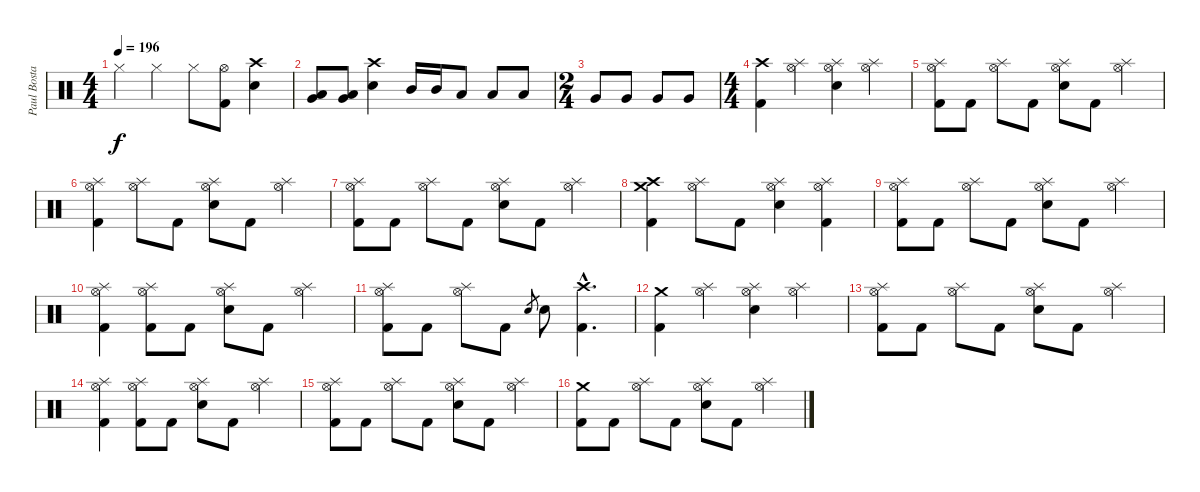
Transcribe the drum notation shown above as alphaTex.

\track ("Paul Bostaph" "Paul Bosta") {instrument percussion}
\staff {score}
\articulation defaults
\ts (4 4)
\tempo 196
\clef neutral
\ks c "Hi-Hat (closed)".4{dy f} "Hi-Hat (closed)".4 "Hi-Hat (closed)".8
("Hi-Hat (open)" "Kick (hit) 2").8 ("Crash high (hit)" "Electric Snare (hit)").4 |
("Very Low Tom (hit)" "Low Tom (hit)").8 ("Very Low Tom (hit)" "Low Tom (hit)").8 ("Crash high (hit)" "Electric Snare (hit)").4 "Mid Tom (hit)".16 "Mid Tom (hit)".16 "Low Tom (hit)".8 "Low Tom (hit)".8 "Low Tom (hit)".8 |
\ts (2 4)
"Very Low Tom (hit)".8 "Very Low Tom (hit)".8 "Very Low Tom (hit)".8 "Very Low Tom (hit)".8 |
\ts (4 4)
("Crash high (hit)" "Kick (hit) 2").4 ("Splash (hit)" "Hi-Hat (open)").4 ("Splash (hit)" "Electric Snare (hit)" "Hi-Hat (open)").4 ("Splash (hit)" "Hi-Hat (open)").4 |
("Splash (hit)" "Kick (hit) 2" "Hi-Hat (open)").8 "Kick (hit) 2".8 ("Splash (hit)" "Hi-Hat (open)").8 "Kick (hit) 2".8 ("Splash (hit)" "Electric Snare (hit)" "Hi-Hat (open)").8 "Kick (hit) 2".8 ("Splash (hit)" "Hi-Hat (open)").4 |
("Splash (hit)" "Kick (hit) 2" "Hi-Hat (open)").4 ("Splash (hit)" "Hi-Hat (open)").8 "Kick (hit) 2".8 ("Splash (hit)" "Electric Snare (hit)" "Hi-Hat (open)").8 "Kick (hit) 2".8 ("Splash (hit)" "Hi-Hat (open)").4 |
("Splash (hit)" "Kick (hit) 2" "Hi-Hat (open)").8 "Kick (hit) 2".8 ("Splash (hit)" "Hi-Hat (open)").8 "Kick (hit) 2".8 ("Splash (hit)" "Electric Snare (hit)" "Hi-Hat (open)").8 "Kick (hit) 2".8 ("Splash (hit)" "Hi-Hat (open)").4 |
("Crash high (hit)" "Kick (hit) 2" "Crash medium (hit)").4 ("Splash (hit)" "Hi-Hat (open)").8 "Kick (hit) 2".8 ("Splash (hit)" "Electric Snare (hit)" "Hi-Hat (open)").4 ("Splash (hit)" "Kick (hit) 2" "Hi-Hat (open)").4 |
("Splash (hit)" "Kick (hit) 2" "Hi-Hat (open)").8 "Kick (hit) 2".8 ("Splash (hit)" "Hi-Hat (open)").8 "Kick (hit) 2".8 ("Splash (hit)" "Electric Snare (hit)" "Hi-Hat (open)").8 "Kick (hit) 2".8 ("Splash (hit)" "Hi-Hat (open)").4 |
("Splash (hit)" "Kick (hit) 2" "Hi-Hat (open)").4 ("Splash (hit)" "Kick (hit) 2" "Hi-Hat (open)").8 "Kick (hit) 2".8 ("Splash (hit)" "Electric Snare (hit)" "Hi-Hat (open)").8 "Kick (hit) 2".8 ("Splash (hit)" "Hi-Hat (open)").4 |
("Splash (hit)" "Kick (hit) 2" "Hi-Hat (open)").8 "Kick (hit) 2".8 ("Splash (hit)" "Hi-Hat (open)").8 "Kick (hit) 2".8 "Electric Snare (hit)".8{gr} "Electric Snare (hit)".8 ("Crash high (hit)"{hac} "Kick (hit) 2"{hac}).4{d} |
("Crash medium (hit)" "Kick (hit) 2").4 ("Splash (hit)" "Hi-Hat (open)").4 ("Splash (hit)" "Electric Snare (hit)" "Hi-Hat (open)").4 ("Splash (hit)" "Hi-Hat (open)").4 |
("Splash (hit)" "Kick (hit) 2" "Hi-Hat (open)").8 "Kick (hit) 2".8 ("Splash (hit)" "Hi-Hat (open)").8 "Kick (hit) 2".8 ("Splash (hit)" "Electric Snare (hit)" "Hi-Hat (open)").8 "Kick (hit) 2".8 ("Splash (hit)" "Hi-Hat (open)").4 |
("Splash (hit)" "Kick (hit) 2" "Hi-Hat (open)").4 ("Splash (hit)" "Kick (hit) 2" "Hi-Hat (open)").8 "Kick (hit) 2".8 ("Splash (hit)" "Electric Snare (hit)" "Hi-Hat (open)").8 "Kick (hit) 2".8 ("Splash (hit)" "Hi-Hat (open)").4 |
("Splash (hit)" "Kick (hit) 2" "Hi-Hat (open)").8 "Kick (hit) 2".8 ("Splash (hit)" "Hi-Hat (open)").8 "Kick (hit) 2".8 ("Splash (hit)" "Electric Snare (hit)" "Hi-Hat (open)").8 "Kick (hit) 2".8 ("Splash (hit)" "Hi-Hat (open)").4 |
("Crash medium (hit)" "Kick (hit) 2").8 "Kick (hit) 2".8 ("Splash (hit)" "Hi-Hat (open)").8 "Kick (hit) 2".8 ("Splash (hit)" "Electric Snare (hit)" "Hi-Hat (open)").8 "Kick (hit) 2".8 ("Splash (hit)" "Hi-Hat (open)").4
